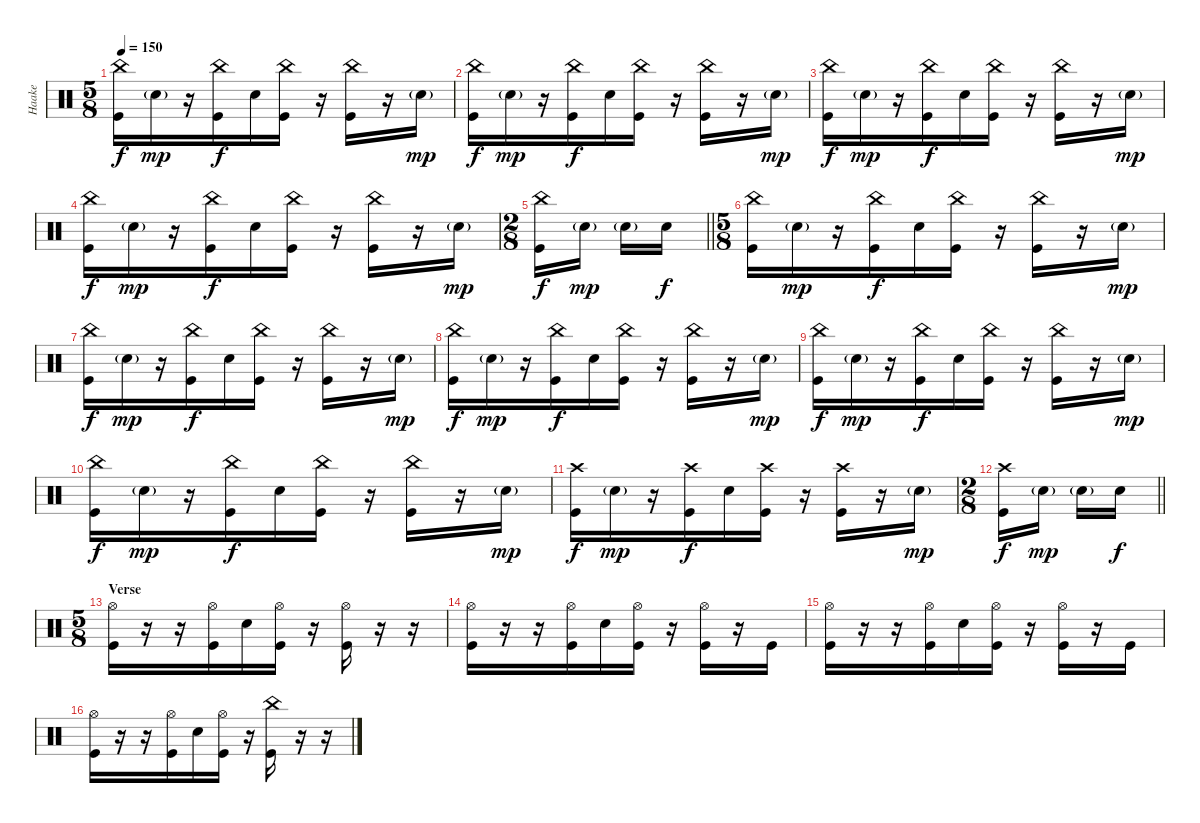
\track ("Haake" "Haake") {instrument percussion}
\staff {score}
\articulation defaults
\ts (5 8)
\tempo 150
\clef neutral
\ks c
("China (hit)" "Kick (hit)").16{dy f} "Snare (hit) 2"{g}.16{dy mp} r.16 ("China (hit)" "Kick (hit)").16{dy f} "Snare (hit) 2".16 ("China (hit)" "Kick (hit)").16 r.16 ("China (hit)" "Kick (hit)").16 r.16 "Snare (hit) 2"{g}.16{dy mp} |
("China (hit)" "Kick (hit)").16{dy f} "Snare (hit) 2"{g}.16{dy mp} r.16 ("China (hit)" "Kick (hit)").16{dy f} "Snare (hit) 2".16 ("China (hit)" "Kick (hit)").16 r.16 ("China (hit)" "Kick (hit)").16 r.16 "Snare (hit) 2"{g}.16{dy mp} |
("China (hit)" "Kick (hit)").16{dy f} "Snare (hit) 2"{g}.16{dy mp} r.16 ("China (hit)" "Kick (hit)").16{dy f} "Snare (hit) 2".16 ("China (hit)" "Kick (hit)").16 r.16 ("China (hit)" "Kick (hit)").16 r.16 "Snare (hit) 2"{g}.16{dy mp} |
("China (hit)" "Kick (hit)").16{dy f} "Snare (hit) 2"{g}.16{dy mp} r.16 ("China (hit)" "Kick (hit)").16{dy f} "Snare (hit) 2".16 ("China (hit)" "Kick (hit)").16 r.16 ("China (hit)" "Kick (hit)").16 r.16 "Snare (hit) 2"{g}.16{dy mp} |
\ts (2 8)
\barLineRight lightlight
("China (hit)" "Kick (hit)").16{dy f} "Snare (hit) 2"{g}.16{dy mp} "Snare (hit) 2"{g}.16 "Snare (hit) 2".16{dy f} |
\ts (5 8)
("China (hit)" "Kick (hit)").16 "Snare (hit) 2"{g}.16{dy mp} r.16 ("China (hit)" "Kick (hit)").16{dy f} "Snare (hit) 2".16 ("China (hit)" "Kick (hit)").16 r.16 ("China (hit)" "Kick (hit)").16 r.16 "Snare (hit) 2"{g}.16{dy mp} |
("China (hit)" "Kick (hit)").16{dy f} "Snare (hit) 2"{g}.16{dy mp} r.16 ("China (hit)" "Kick (hit)").16{dy f} "Snare (hit) 2".16 ("China (hit)" "Kick (hit)").16 r.16 ("China (hit)" "Kick (hit)").16 r.16 "Snare (hit) 2"{g}.16{dy mp} |
("China (hit)" "Kick (hit)").16{dy f} "Snare (hit) 2"{g}.16{dy mp} r.16 ("China (hit)" "Kick (hit)").16{dy f} "Snare (hit) 2".16 ("China (hit)" "Kick (hit)").16 r.16 ("China (hit)" "Kick (hit)").16 r.16 "Snare (hit) 2"{g}.16{dy mp} |
("China (hit)" "Kick (hit)").16{dy f} "Snare (hit) 2"{g}.16{dy mp} r.16 ("China (hit)" "Kick (hit)").16{dy f} "Snare (hit) 2".16 ("China (hit)" "Kick (hit)").16 r.16 ("China (hit)" "Kick (hit)").16 r.16 "Snare (hit) 2"{g}.16{dy mp} |
("China (hit)" "Kick (hit)").16{dy f} "Snare (hit) 2"{g}.16{dy mp} r.16 ("China (hit)" "Kick (hit)").16{dy f} "Snare (hit) 2".16 ("China (hit)" "Kick (hit)").16 r.16 ("China (hit)" "Kick (hit)").16 r.16 "Snare (hit) 2"{g}.16{dy mp} |
("Crash high (hit)" "Kick (hit)").16{dy f} "Snare (hit) 2"{g}.16{dy mp} r.16 ("Crash high (hit)" "Kick (hit)").16{dy f} "Snare (hit) 2".16 ("Crash high (hit)" "Kick (hit)").16 r.16 ("Crash high (hit)" "Kick (hit)").16 r.16 "Snare (hit) 2"{g}.16{dy mp} |
\ts (2 8)
\barLineRight lightlight
("Crash high (hit)" "Kick (hit)").16{dy f} "Snare (hit) 2"{g}.16{dy mp} "Snare (hit) 2"{g}.16 "Snare (hit) 2".16{dy f} |
\ts (5 8)
\section ("" "Verse")
("Hi-Hat (open)" "Kick (hit)").16 r.16 r.16 ("Hi-Hat (open)" "Kick (hit)").16 "Snare (hit) 2".16 ("Hi-Hat (open)" "Kick (hit)").16 r.16 ("Hi-Hat (open)" "Kick (hit)").16 r.16 r.16 |
("Hi-Hat (open)" "Kick (hit)").16 r.16 r.16 ("Hi-Hat (open)" "Kick (hit)").16 "Snare (hit) 2".16 ("Hi-Hat (open)" "Kick (hit)").16 r.16 ("Hi-Hat (open)" "Kick (hit)").16 r.16 "Kick (hit)".16 |
("Hi-Hat (open)" "Kick (hit)").16 r.16 r.16 ("Hi-Hat (open)" "Kick (hit)").16 "Snare (hit) 2".16 ("Hi-Hat (open)" "Kick (hit)").16 r.16 ("Hi-Hat (open)" "Kick (hit)").16 r.16 "Kick (hit)".16 |
("Hi-Hat (open)" "Kick (hit)").16 r.16 r.16 ("Hi-Hat (open)" "Kick (hit)").16 "Snare (hit) 2".16 ("Hi-Hat (open)" "Kick (hit)").16 r.16 ("China (hit)" "Kick (hit)").16 r.16 r.16
